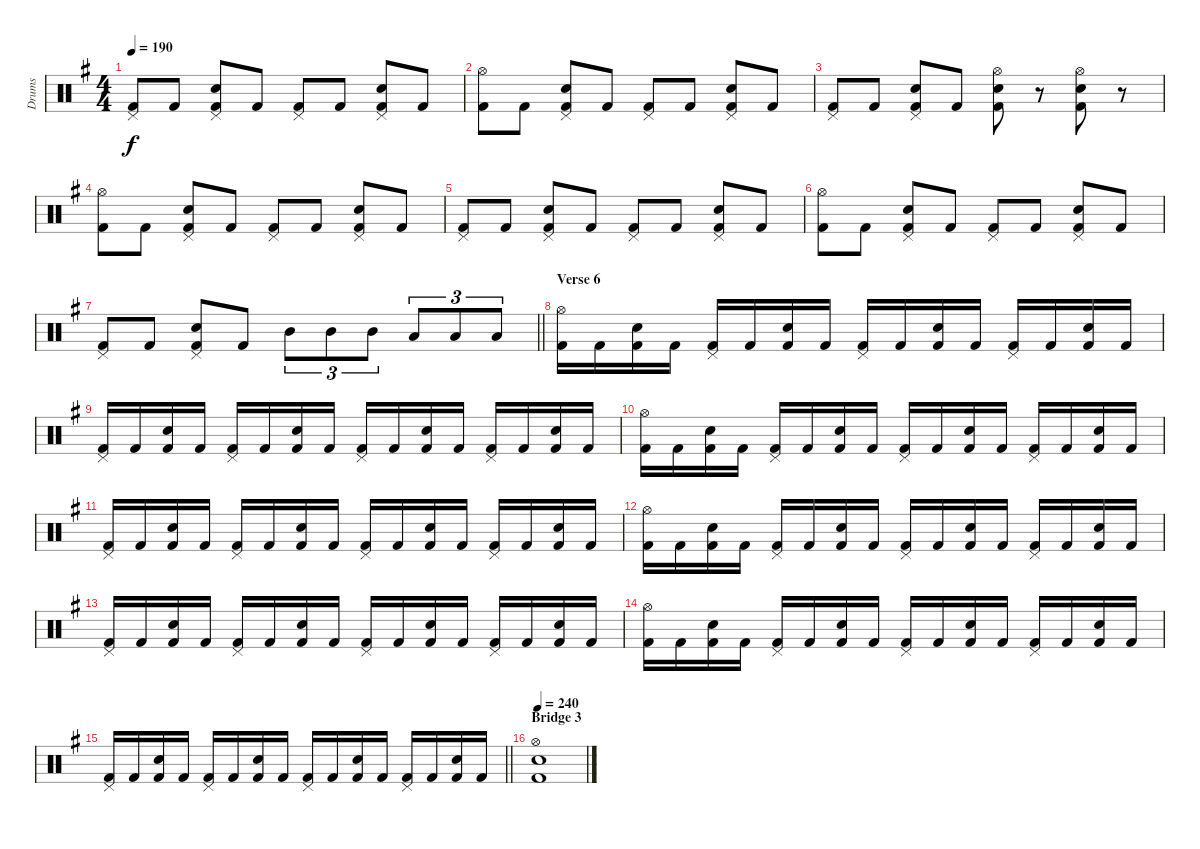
\track ("Drums" "Drums") {instrument percussion}
\staff {score}
\articulation defaults
\ts (4 4)
\tempo 190
\clef neutral
\ks g
("Pedal Hi-Hat (hit)" "Kick (hit) 2").8{dy f} "Kick (hit) 2".8 ("Pedal Hi-Hat (hit)" "Snare (hit) 2" "Kick (hit) 2").8 "Kick (hit) 2".8 ("Pedal Hi-Hat (hit)" "Kick (hit) 2").8 "Kick (hit) 2".8 ("Pedal Hi-Hat (hit)" "Snare (hit) 2" "Kick (hit) 2").8 "Kick (hit) 2".8 |
("Hi-Hat (open)" "Kick (hit) 2").8 "Kick (hit) 2".8 ("Pedal Hi-Hat (hit)" "Snare (hit) 2" "Kick (hit) 2").8 "Kick (hit) 2".8 ("Pedal Hi-Hat (hit)" "Kick (hit) 2").8 "Kick (hit) 2".8 ("Pedal Hi-Hat (hit)" "Snare (hit) 2" "Kick (hit) 2").8 "Kick (hit) 2".8 |
("Pedal Hi-Hat (hit)" "Kick (hit) 2").8 "Kick (hit) 2".8 ("Pedal Hi-Hat (hit)" "Snare (hit) 2" "Kick (hit) 2").8 "Kick (hit) 2".8 ("Hi-Hat (open)" "Snare (hit) 2" "Kick (hit) 2").8 r.8 ("Hi-Hat (open)" "Snare (hit) 2" "Kick (hit) 2").8 r.8 |
("Hi-Hat (open)" "Kick (hit) 2").8 "Kick (hit) 2".8 ("Pedal Hi-Hat (hit)" "Snare (hit) 2" "Kick (hit) 2").8 "Kick (hit) 2".8 ("Pedal Hi-Hat (hit)" "Kick (hit) 2").8 "Kick (hit) 2".8 ("Pedal Hi-Hat (hit)" "Snare (hit) 2" "Kick (hit) 2").8 "Kick (hit) 2".8 |
("Pedal Hi-Hat (hit)" "Kick (hit) 2").8 "Kick (hit) 2".8 ("Pedal Hi-Hat (hit)" "Snare (hit) 2" "Kick (hit) 2").8 "Kick (hit) 2".8 ("Pedal Hi-Hat (hit)" "Kick (hit) 2").8 "Kick (hit) 2".8 ("Pedal Hi-Hat (hit)" "Snare (hit) 2" "Kick (hit) 2").8 "Kick (hit) 2".8 |
("Hi-Hat (open)" "Kick (hit) 2").8 "Kick (hit) 2".8 ("Pedal Hi-Hat (hit)" "Snare (hit) 2" "Kick (hit) 2").8 "Kick (hit) 2".8 ("Pedal Hi-Hat (hit)" "Kick (hit) 2").8 "Kick (hit) 2".8 ("Pedal Hi-Hat (hit)" "Snare (hit) 2" "Kick (hit) 2").8 "Kick (hit) 2".8 |
\barLineRight lightlight
("Pedal Hi-Hat (hit)" "Kick (hit) 2").8 "Kick (hit) 2".8 ("Pedal Hi-Hat (hit)" "Snare (hit) 2" "Kick (hit) 2").8 "Kick (hit) 2".8 "Mid Tom (hit)".8{tu (3 2)} "Mid Tom (hit)".8{tu (3 2)} "Mid Tom (hit)".8{tu (3 2)} "Low Tom (hit)".8{tu (3 2)} "Low Tom (hit)".8{tu (3 2)} "Low Tom (hit)".8{tu (3 2)} |
\section ("" "Verse 6")
("Hi-Hat (open)" "Kick (hit) 2").16 "Kick (hit) 2".16 ("Snare (hit) 2" "Kick (hit) 2").16 "Kick (hit) 2".16 ("Pedal Hi-Hat (hit)" "Kick (hit) 2").16 "Kick (hit) 2".16 ("Snare (hit) 2" "Kick (hit) 2").16 "Kick (hit) 2".16 ("Pedal Hi-Hat (hit)" "Kick (hit) 2").16 "Kick (hit) 2".16 ("Snare (hit) 2" "Kick (hit) 2").16 "Kick (hit) 2".16 ("Pedal Hi-Hat (hit)" "Kick (hit) 2").16 "Kick (hit) 2".16 ("Snare (hit) 2" "Kick (hit) 2").16 "Kick (hit) 2".16 |
("Pedal Hi-Hat (hit)" "Kick (hit) 2").16 "Kick (hit) 2".16 ("Snare (hit) 2" "Kick (hit) 2").16 "Kick (hit) 2".16 ("Pedal Hi-Hat (hit)" "Kick (hit) 2").16 "Kick (hit) 2".16 ("Snare (hit) 2" "Kick (hit) 2").16 "Kick (hit) 2".16 ("Pedal Hi-Hat (hit)" "Kick (hit) 2").16 "Kick (hit) 2".16 ("Snare (hit) 2" "Kick (hit) 2").16 "Kick (hit) 2".16 ("Pedal Hi-Hat (hit)" "Kick (hit) 2").16 "Kick (hit) 2".16 ("Snare (hit) 2" "Kick (hit) 2").16 "Kick (hit) 2".16 |
("Hi-Hat (open)" "Kick (hit) 2").16 "Kick (hit) 2".16 ("Snare (hit) 2" "Kick (hit) 2").16 "Kick (hit) 2".16 ("Pedal Hi-Hat (hit)" "Kick (hit) 2").16 "Kick (hit) 2".16 ("Snare (hit) 2" "Kick (hit) 2").16 "Kick (hit) 2".16 ("Pedal Hi-Hat (hit)" "Kick (hit) 2").16 "Kick (hit) 2".16 ("Snare (hit) 2" "Kick (hit) 2").16 "Kick (hit) 2".16 ("Pedal Hi-Hat (hit)" "Kick (hit) 2").16 "Kick (hit) 2".16 ("Snare (hit) 2" "Kick (hit) 2").16 "Kick (hit) 2".16 |
("Pedal Hi-Hat (hit)" "Kick (hit) 2").16 "Kick (hit) 2".16 ("Snare (hit) 2" "Kick (hit) 2").16 "Kick (hit) 2".16 ("Pedal Hi-Hat (hit)" "Kick (hit) 2").16 "Kick (hit) 2".16 ("Snare (hit) 2" "Kick (hit) 2").16 "Kick (hit) 2".16 ("Pedal Hi-Hat (hit)" "Kick (hit) 2").16 "Kick (hit) 2".16 ("Snare (hit) 2" "Kick (hit) 2").16 "Kick (hit) 2".16 ("Pedal Hi-Hat (hit)" "Kick (hit) 2").16 "Kick (hit) 2".16 ("Snare (hit) 2" "Kick (hit) 2").16 "Kick (hit) 2".16 |
("Hi-Hat (open)" "Kick (hit) 2").16 "Kick (hit) 2".16 ("Snare (hit) 2" "Kick (hit) 2").16 "Kick (hit) 2".16 ("Pedal Hi-Hat (hit)" "Kick (hit) 2").16 "Kick (hit) 2".16 ("Snare (hit) 2" "Kick (hit) 2").16 "Kick (hit) 2".16 ("Pedal Hi-Hat (hit)" "Kick (hit) 2").16 "Kick (hit) 2".16 ("Snare (hit) 2" "Kick (hit) 2").16 "Kick (hit) 2".16 ("Pedal Hi-Hat (hit)" "Kick (hit) 2").16 "Kick (hit) 2".16 ("Snare (hit) 2" "Kick (hit) 2").16 "Kick (hit) 2".16 |
("Pedal Hi-Hat (hit)" "Kick (hit) 2").16 "Kick (hit) 2".16 ("Snare (hit) 2" "Kick (hit) 2").16 "Kick (hit) 2".16 ("Pedal Hi-Hat (hit)" "Kick (hit) 2").16 "Kick (hit) 2".16 ("Snare (hit) 2" "Kick (hit) 2").16 "Kick (hit) 2".16 ("Pedal Hi-Hat (hit)" "Kick (hit) 2").16 "Kick (hit) 2".16 ("Snare (hit) 2" "Kick (hit) 2").16 "Kick (hit) 2".16 ("Pedal Hi-Hat (hit)" "Kick (hit) 2").16 "Kick (hit) 2".16 ("Snare (hit) 2" "Kick (hit) 2").16 "Kick (hit) 2".16 |
("Hi-Hat (open)" "Kick (hit) 2").16 "Kick (hit) 2".16 ("Snare (hit) 2" "Kick (hit) 2").16 "Kick (hit) 2".16 ("Pedal Hi-Hat (hit)" "Kick (hit) 2").16 "Kick (hit) 2".16 ("Snare (hit) 2" "Kick (hit) 2").16 "Kick (hit) 2".16 ("Pedal Hi-Hat (hit)" "Kick (hit) 2").16 "Kick (hit) 2".16 ("Snare (hit) 2" "Kick (hit) 2").16 "Kick (hit) 2".16 ("Pedal Hi-Hat (hit)" "Kick (hit) 2").16 "Kick (hit) 2".16 ("Snare (hit) 2" "Kick (hit) 2").16 "Kick (hit) 2".16 |
\barLineRight lightlight
("Pedal Hi-Hat (hit)" "Kick (hit) 2").16 "Kick (hit) 2".16 ("Snare (hit) 2" "Kick (hit) 2").16 "Kick (hit) 2".16 ("Pedal Hi-Hat (hit)" "Kick (hit) 2").16 "Kick (hit) 2".16 ("Snare (hit) 2" "Kick (hit) 2").16 "Kick (hit) 2".16 ("Pedal Hi-Hat (hit)" "Kick (hit) 2").16 "Kick (hit) 2".16 ("Snare (hit) 2" "Kick (hit) 2").16 "Kick (hit) 2".16 ("Pedal Hi-Hat (hit)" "Kick (hit) 2").16 "Kick (hit) 2".16 ("Snare (hit) 2" "Kick (hit) 2").16 "Kick (hit) 2".16 |
\section ("" "Bridge 3")
\tempo 240
("Hi-Hat (open)" "Snare (hit) 2" "Kick (hit) 2").1
